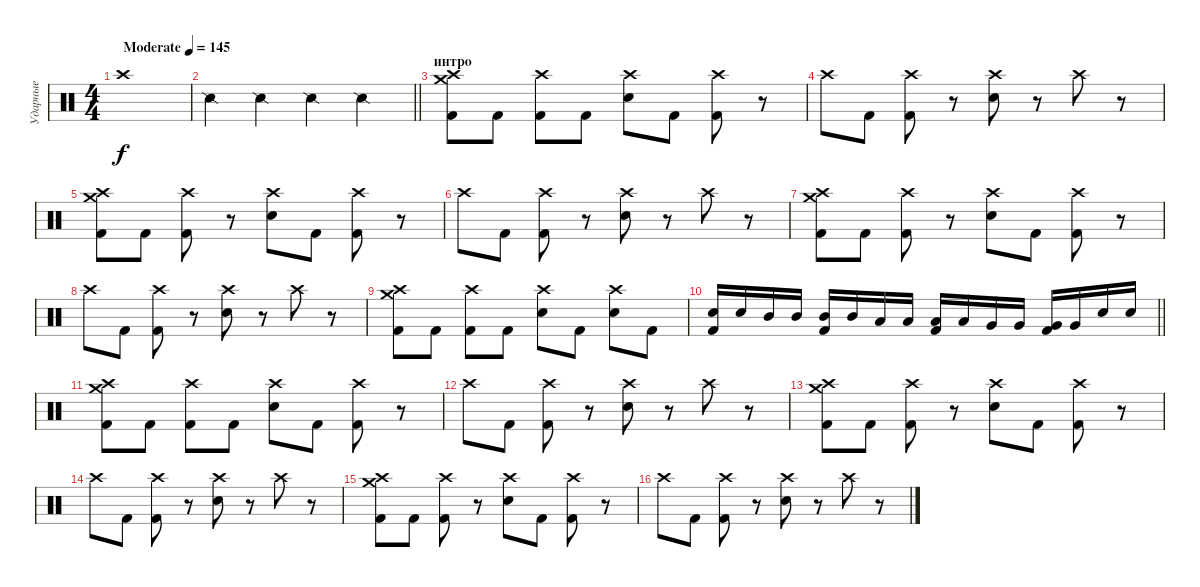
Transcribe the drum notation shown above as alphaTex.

\track ("Ударные" "Ударные") {instrument percussion}
\staff {score}
\articulation defaults
\ts (4 4)
\tempo (145 "Moderate")
\clef neutral
\ks c "Crash high (hit)".1{dy f}
|
\barLineRight lightlight "Snare (side stick) 2".4 "Snare (side stick) 2".4 "Snare (side stick) 2".4 "Snare (side stick) 2".4
|
\section ("" "интро")
("Crash medium (hit)" "Crash high (hit)" "Kick (hit) 2").8 "Kick (hit) 2".8 ("Crash high (hit)" "Kick (hit) 2").8 "Kick (hit) 2".8 ("Crash high (hit)" "Electric Snare (hit)").8 "Kick (hit) 2".8 ("Crash high (hit)" "Kick (hit) 2").8 r.8 |
"Crash high (hit)".8 "Kick (hit) 2".8 ("Crash high (hit)" "Kick (hit) 2").8 r.8 ("Crash high (hit)" "Electric Snare (hit)").8 r.8 "Crash high (hit)".8 r.8 |
("Crash medium (hit)" "Crash high (hit)" "Kick (hit) 2").8 "Kick (hit) 2".8 ("Crash high (hit)" "Kick (hit) 2").8 r.8 ("Crash high (hit)" "Electric Snare (hit)").8 "Kick (hit) 2".8 ("Crash high (hit)" "Kick (hit) 2").8 r.8 |
"Crash high (hit)".8 "Kick (hit) 2".8 ("Crash high (hit)" "Kick (hit) 2").8 r.8 ("Crash high (hit)" "Electric Snare (hit)").8 r.8 "Crash high (hit)".8 r.8 |
("Crash medium (hit)" "Crash high (hit)" "Kick (hit) 2").8 "Kick (hit) 2".8 ("Crash high (hit)" "Kick (hit) 2").8 r.8 ("Crash high (hit)" "Electric Snare (hit)").8 "Kick (hit) 2".8 ("Crash high (hit)" "Kick (hit) 2").8 r.8 |
"Crash high (hit)".8 "Kick (hit) 2".8 ("Crash high (hit)" "Kick (hit) 2").8 r.8 ("Crash high (hit)" "Electric Snare (hit)").8 r.8 "Crash high (hit)".8 r.8 |
("Crash medium (hit)" "Crash high (hit)" "Kick (hit) 2").8 "Kick (hit) 2".8 ("Crash high (hit)" "Kick (hit) 2").8 "Kick (hit) 2".8 ("Crash high (hit)" "Electric Snare (hit)").8 "Kick (hit) 2".8 ("Crash high (hit)" "Electric Snare (hit)").8 "Kick (hit) 2".8 |
\barLineRight lightlight
("Electric Snare (hit)" "Kick (hit) 2").16 "Electric Snare (hit)".16 "Mid Tom (hit)".16 "Mid Tom (hit)".16 ("Mid Tom (hit)" "Kick (hit) 2").16 "Mid Tom (hit)".16 "Low Tom (hit)".16 "Low Tom (hit)".16 ("Low Tom (hit)" "Kick (hit) 2").16 "Low Tom (hit)".16 "Very Low Tom (hit)".16 "Very Low Tom (hit)".16 ("Very Low Tom (hit)" "Kick (hit) 2").16 "Very Low Tom (hit)".16 "Electric Snare (hit)".16 "Electric Snare (hit)".16 |
("Crash medium (hit)" "Crash high (hit)" "Kick (hit) 2").8 "Kick (hit) 2".8 ("Crash high (hit)" "Kick (hit) 2").8 "Kick (hit) 2".8 ("Crash high (hit)" "Electric Snare (hit)").8 "Kick (hit) 2".8 ("Crash high (hit)" "Kick (hit) 2").8 r.8 |
"Crash high (hit)".8 "Kick (hit) 2".8 ("Crash high (hit)" "Kick (hit) 2").8 r.8 ("Crash high (hit)" "Electric Snare (hit)").8 r.8 "Crash high (hit)".8 r.8 |
("Crash medium (hit)" "Crash high (hit)" "Kick (hit) 2").8 "Kick (hit) 2".8 ("Crash high (hit)" "Kick (hit) 2").8 r.8 ("Crash high (hit)" "Electric Snare (hit)").8 "Kick (hit) 2".8 ("Crash high (hit)" "Kick (hit) 2").8 r.8 |
"Crash high (hit)".8 "Kick (hit) 2".8 ("Crash high (hit)" "Kick (hit) 2").8 r.8 ("Crash high (hit)" "Electric Snare (hit)").8 r.8 "Crash high (hit)".8 r.8 |
("Crash medium (hit)" "Crash high (hit)" "Kick (hit) 2").8 "Kick (hit) 2".8 ("Crash high (hit)" "Kick (hit) 2").8 r.8 ("Crash high (hit)" "Electric Snare (hit)").8 "Kick (hit) 2".8 ("Crash high (hit)" "Kick (hit) 2").8 r.8 |
"Crash high (hit)".8 "Kick (hit) 2".8 ("Crash high (hit)" "Kick (hit) 2").8 r.8 ("Crash high (hit)" "Electric Snare (hit)").8 r.8 "Crash high (hit)".8 r.8
